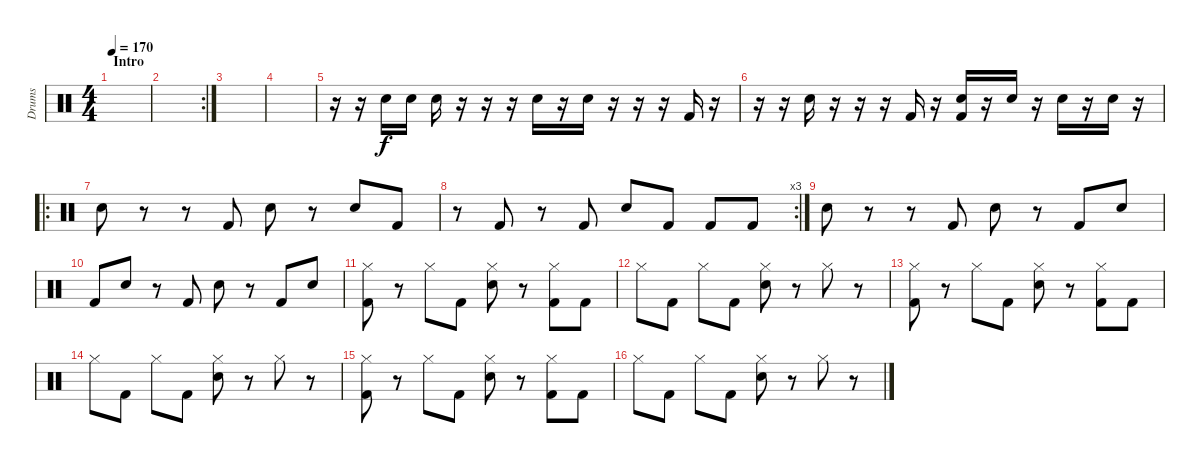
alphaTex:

\track ("Drums" "Drums") {instrument percussion}
\staff {score}
\articulation defaults
\ts (4 4)
\section ("" "Intro")
\tempo 170
\clef neutral
\ks c
|
\rc 2
|
|
|
r.16 r.16 "Snare (hit) 2".16 "Snare (hit) 2".16 "Snare (hit) 2".16 r.16 r.16 r.16 "Snare (hit) 2".16 r.16 "Snare (hit) 2".16 r.16 r.16 r.16 "Kick (hit) 2".16 r.16 |
r.16 r.16 "Snare (hit) 2".16 r.16 r.16 r.16 "Kick (hit) 2".16 r.16 ("Snare (hit) 2" "Kick (hit) 2").16 r.16 "Snare (hit) 2".16 r.16 "Snare (hit) 2".16 r.16 "Snare (hit) 2".16 r.16 |
\ro "Snare (hit) 2".8
r.8 r.8 "Kick (hit) 2".8 "Snare (hit) 2".8 r.8 "Snare (hit) 2".8 "Kick (hit) 2".8 |
\rc 3
r.8 "Kick (hit) 2".8 r.8 "Kick (hit) 2".8 "Snare (hit) 2".8 "Kick (hit) 2".8 "Kick (hit) 2".8 "Kick (hit) 2".8 |
"Snare (hit) 2".8 r.8 r.8 "Kick (hit) 2".8 "Snare (hit) 2".8 r.8 "Kick (hit) 2".8 "Snare (hit) 2".8 |
"Kick (hit) 2".8 "Snare (hit) 2".8 r.8 "Kick (hit) 2".8 "Snare (hit) 2".8 r.8 "Kick (hit) 2".8 "Snare (hit) 2".8 |
("Hi-Hat (closed)" "Kick (hit) 2").8 r.8 "Hi-Hat (closed)".8 "Kick (hit) 2".8 ("Hi-Hat (closed)" "Snare (hit) 2").8 r.8 ("Hi-Hat (closed)" "Kick (hit) 2").8 "Kick (hit) 2".8 |
"Hi-Hat (closed)".8 "Kick (hit) 2".8 "Hi-Hat (closed)".8 "Kick (hit) 2".8 ("Hi-Hat (closed)" "Snare (hit) 2").8 r.8 "Hi-Hat (closed)".8 r.8 |
("Hi-Hat (closed)" "Kick (hit) 2").8 r.8 "Hi-Hat (closed)".8 "Kick (hit) 2".8 ("Hi-Hat (closed)" "Snare (hit) 2").8 r.8 ("Hi-Hat (closed)" "Kick (hit) 2").8 "Kick (hit) 2".8 |
"Hi-Hat (closed)".8 "Kick (hit) 2".8 "Hi-Hat (closed)".8 "Kick (hit) 2".8 ("Hi-Hat (closed)" "Snare (hit) 2").8 r.8 "Hi-Hat (closed)".8 r.8 |
("Hi-Hat (closed)" "Kick (hit) 2").8 r.8 "Hi-Hat (closed)".8 "Kick (hit) 2".8 ("Hi-Hat (closed)" "Snare (hit) 2").8 r.8 ("Hi-Hat (closed)" "Kick (hit) 2").8 "Kick (hit) 2".8 |
"Hi-Hat (closed)".8 "Kick (hit) 2".8 "Hi-Hat (closed)".8 "Kick (hit) 2".8 ("Hi-Hat (closed)" "Snare (hit) 2").8 r.8 "Hi-Hat (closed)".8 r.8
